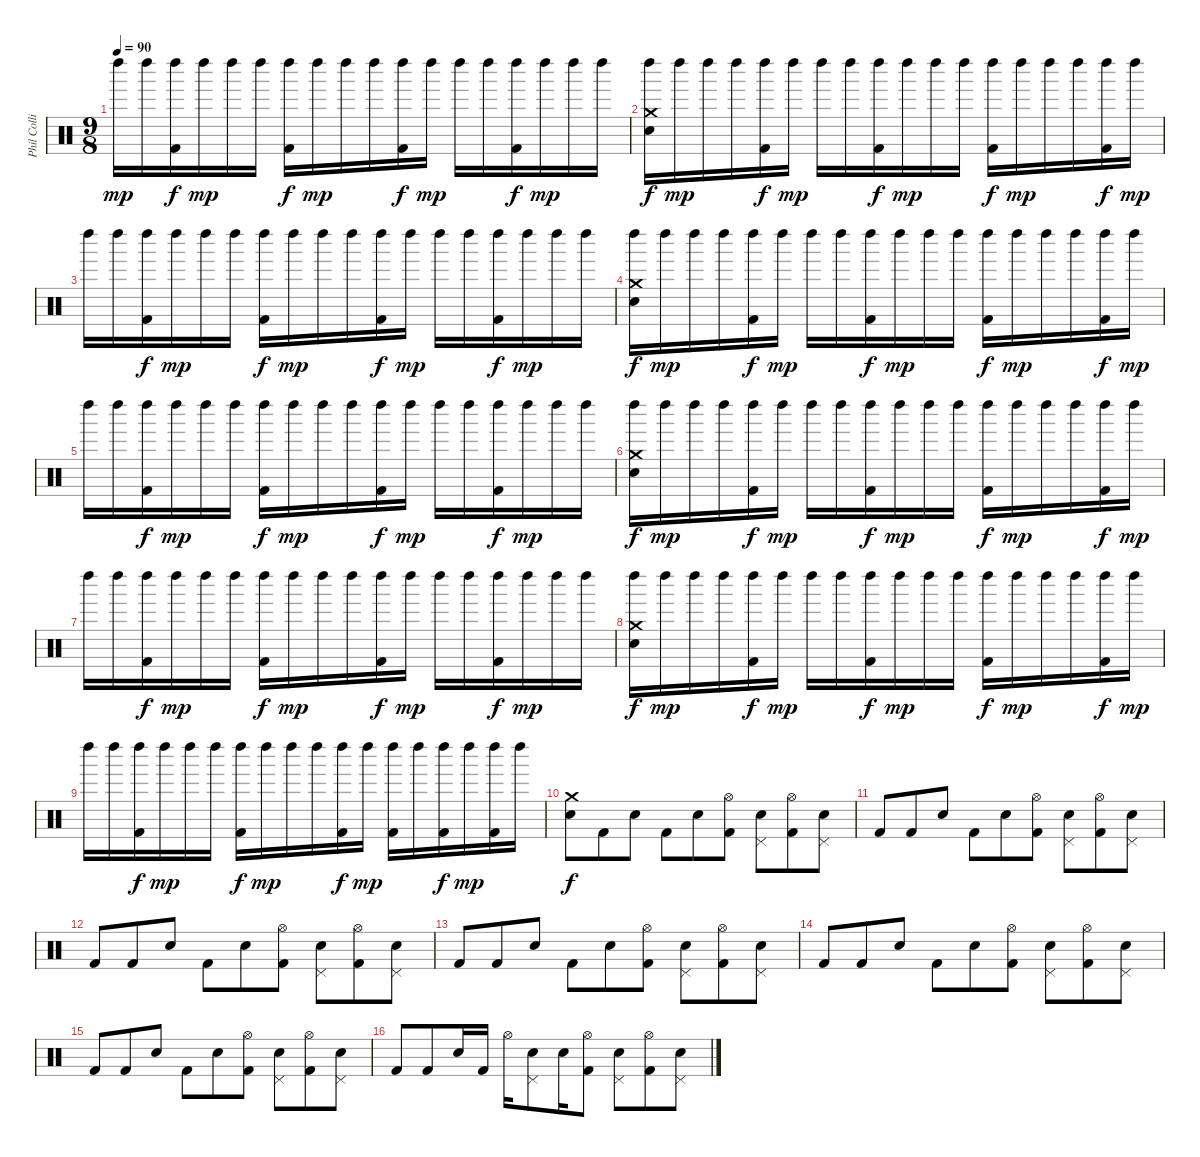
\track ("Phil Collins (drums)" "Phil Colli") {instrument percussion}
\staff {score}
\articulation defaults
\ts (9 8)
\tempo 90
\clef neutral
\ks c "Left Maraca (hit)".16{dy mp} "Left Maraca (hit)".16
("Left Maraca (hit)" "Kick (hit) 2").16{dy f} "Left Maraca (hit)".16{dy mp} "Left Maraca (hit)".16 "Left Maraca (hit)".16 ("Left Maraca (hit)" "Kick (hit) 2").16{dy f} "Left Maraca (hit)".16{dy mp} "Left Maraca (hit)".16 "Left Maraca (hit)".16 ("Left Maraca (hit)" "Kick (hit) 2").16{dy f} "Left Maraca (hit)".16{dy mp} "Left Maraca (hit)".16 "Left Maraca (hit)".16 ("Left Maraca (hit)" "Kick (hit) 2").16{dy f} "Left Maraca (hit)".16{dy mp} "Left Maraca (hit)".16 "Left Maraca (hit)".16 |
("Crash medium (hit)" "Left Maraca (hit)" "Electric Snare (hit)").16{dy f} "Left Maraca (hit)".16{dy mp} "Left Maraca (hit)".16 "Left Maraca (hit)".16 ("Left Maraca (hit)" "Kick (hit) 2").16{dy f} "Left Maraca (hit)".16{dy mp} "Left Maraca (hit)".16 "Left Maraca (hit)".16 ("Left Maraca (hit)" "Kick (hit) 2").16{dy f} "Left Maraca (hit)".16{dy mp} "Left Maraca (hit)".16 "Left Maraca (hit)".16 ("Left Maraca (hit)" "Kick (hit) 2").16{dy f} "Left Maraca (hit)".16{dy mp} "Left Maraca (hit)".16 "Left Maraca (hit)".16 ("Left Maraca (hit)" "Kick (hit) 2").16{dy f} "Left Maraca (hit)".16{dy mp} |
"Left Maraca (hit)".16 "Left Maraca (hit)".16 ("Left Maraca (hit)" "Kick (hit) 2").16{dy f} "Left Maraca (hit)".16{dy mp} "Left Maraca (hit)".16 "Left Maraca (hit)".16 ("Left Maraca (hit)" "Kick (hit) 2").16{dy f} "Left Maraca (hit)".16{dy mp} "Left Maraca (hit)".16 "Left Maraca (hit)".16 ("Left Maraca (hit)" "Kick (hit) 2").16{dy f} "Left Maraca (hit)".16{dy mp} "Left Maraca (hit)".16 "Left Maraca (hit)".16 ("Left Maraca (hit)" "Kick (hit) 2").16{dy f} "Left Maraca (hit)".16{dy mp} "Left Maraca (hit)".16 "Left Maraca (hit)".16 |
("Crash medium (hit)" "Left Maraca (hit)" "Electric Snare (hit)").16{dy f} "Left Maraca (hit)".16{dy mp} "Left Maraca (hit)".16 "Left Maraca (hit)".16 ("Left Maraca (hit)" "Kick (hit) 2").16{dy f} "Left Maraca (hit)".16{dy mp} "Left Maraca (hit)".16 "Left Maraca (hit)".16 ("Left Maraca (hit)" "Kick (hit) 2").16{dy f} "Left Maraca (hit)".16{dy mp} "Left Maraca (hit)".16 "Left Maraca (hit)".16 ("Left Maraca (hit)" "Kick (hit) 2").16{dy f} "Left Maraca (hit)".16{dy mp} "Left Maraca (hit)".16 "Left Maraca (hit)".16 ("Left Maraca (hit)" "Kick (hit) 2").16{dy f} "Left Maraca (hit)".16{dy mp} |
"Left Maraca (hit)".16 "Left Maraca (hit)".16 ("Left Maraca (hit)" "Kick (hit) 2").16{dy f} "Left Maraca (hit)".16{dy mp} "Left Maraca (hit)".16 "Left Maraca (hit)".16 ("Left Maraca (hit)" "Kick (hit) 2").16{dy f} "Left Maraca (hit)".16{dy mp} "Left Maraca (hit)".16 "Left Maraca (hit)".16 ("Left Maraca (hit)" "Kick (hit) 2").16{dy f} "Left Maraca (hit)".16{dy mp} "Left Maraca (hit)".16 "Left Maraca (hit)".16 ("Left Maraca (hit)" "Kick (hit) 2").16{dy f} "Left Maraca (hit)".16{dy mp} "Left Maraca (hit)".16 "Left Maraca (hit)".16 |
("Crash medium (hit)" "Left Maraca (hit)" "Electric Snare (hit)").16{dy f} "Left Maraca (hit)".16{dy mp} "Left Maraca (hit)".16 "Left Maraca (hit)".16 ("Left Maraca (hit)" "Kick (hit) 2").16{dy f} "Left Maraca (hit)".16{dy mp} "Left Maraca (hit)".16 "Left Maraca (hit)".16 ("Left Maraca (hit)" "Kick (hit) 2").16{dy f} "Left Maraca (hit)".16{dy mp} "Left Maraca (hit)".16 "Left Maraca (hit)".16 ("Left Maraca (hit)" "Kick (hit) 2").16{dy f} "Left Maraca (hit)".16{dy mp} "Left Maraca (hit)".16 "Left Maraca (hit)".16 ("Left Maraca (hit)" "Kick (hit) 2").16{dy f} "Left Maraca (hit)".16{dy mp} |
"Left Maraca (hit)".16 "Left Maraca (hit)".16 ("Left Maraca (hit)" "Kick (hit) 2").16{dy f} "Left Maraca (hit)".16{dy mp} "Left Maraca (hit)".16 "Left Maraca (hit)".16 ("Left Maraca (hit)" "Kick (hit) 2").16{dy f} "Left Maraca (hit)".16{dy mp} "Left Maraca (hit)".16 "Left Maraca (hit)".16 ("Left Maraca (hit)" "Kick (hit) 2").16{dy f} "Left Maraca (hit)".16{dy mp} "Left Maraca (hit)".16 "Left Maraca (hit)".16 ("Left Maraca (hit)" "Kick (hit) 2").16{dy f} "Left Maraca (hit)".16{dy mp} "Left Maraca (hit)".16 "Left Maraca (hit)".16 |
("Crash medium (hit)" "Left Maraca (hit)" "Electric Snare (hit)").16{dy f} "Left Maraca (hit)".16{dy mp} "Left Maraca (hit)".16 "Left Maraca (hit)".16 ("Left Maraca (hit)" "Kick (hit) 2").16{dy f} "Left Maraca (hit)".16{dy mp} "Left Maraca (hit)".16 "Left Maraca (hit)".16 ("Left Maraca (hit)" "Kick (hit) 2").16{dy f} "Left Maraca (hit)".16{dy mp} "Left Maraca (hit)".16 "Left Maraca (hit)".16 ("Left Maraca (hit)" "Kick (hit) 2").16{dy f} "Left Maraca (hit)".16{dy mp} "Left Maraca (hit)".16 "Left Maraca (hit)".16 ("Left Maraca (hit)" "Kick (hit) 2").16{dy f} "Left Maraca (hit)".16{dy mp} |
"Left Maraca (hit)".16 "Left Maraca (hit)".16 ("Left Maraca (hit)" "Kick (hit) 2").16{dy f} "Left Maraca (hit)".16{dy mp} "Left Maraca (hit)".16 "Left Maraca (hit)".16 ("Left Maraca (hit)" "Kick (hit) 2").16{dy f} "Left Maraca (hit)".16{dy mp} "Left Maraca (hit)".16 "Left Maraca (hit)".16 ("Left Maraca (hit)" "Kick (hit) 2").16{dy f} "Left Maraca (hit)".16{dy mp} ("Left Maraca (hit)" "Kick (hit) 2").16 "Left Maraca (hit)".16 ("Left Maraca (hit)" "Kick (hit) 2").16{dy f} "Left Maraca (hit)".16{dy mp} ("Left Maraca (hit)" "Kick (hit) 2").16 "Left Maraca (hit)".16 |
("Crash medium (hit)" "Electric Snare (hit)").8{dy f} "Kick (hit) 2".8 "Electric Snare (hit)".8 "Kick (hit) 2".8 "Electric Snare (hit)".8 ("Hi-Hat (open)" "Kick (hit) 2").8 ("Pedal Hi-Hat (hit)" "Electric Snare (hit)").8 ("Hi-Hat (open)" "Kick (hit) 2").8 ("Pedal Hi-Hat (hit)" "Electric Snare (hit)").8 |
"Kick (hit) 2".8 "Kick (hit) 2".8 "Electric Snare (hit)".8 "Kick (hit) 2".8 "Electric Snare (hit)".8 ("Hi-Hat (open)" "Kick (hit) 2").8 ("Pedal Hi-Hat (hit)" "Electric Snare (hit)").8 ("Hi-Hat (open)" "Kick (hit) 2").8 ("Pedal Hi-Hat (hit)" "Electric Snare (hit)").8 |
"Kick (hit) 2".8 "Kick (hit) 2".8 "Electric Snare (hit)".8 "Kick (hit) 2".8 "Electric Snare (hit)".8 ("Hi-Hat (open)" "Kick (hit) 2").8 ("Pedal Hi-Hat (hit)" "Electric Snare (hit)").8 ("Hi-Hat (open)" "Kick (hit) 2").8 ("Pedal Hi-Hat (hit)" "Electric Snare (hit)").8 |
"Kick (hit) 2".8 "Kick (hit) 2".8 "Electric Snare (hit)".8 "Kick (hit) 2".8 "Electric Snare (hit)".8 ("Hi-Hat (open)" "Kick (hit) 2").8 ("Pedal Hi-Hat (hit)" "Electric Snare (hit)").8 ("Hi-Hat (open)" "Kick (hit) 2").8 ("Pedal Hi-Hat (hit)" "Electric Snare (hit)").8 |
"Kick (hit) 2".8 "Kick (hit) 2".8 "Electric Snare (hit)".8 "Kick (hit) 2".8 "Electric Snare (hit)".8 ("Hi-Hat (open)" "Kick (hit) 2").8 ("Pedal Hi-Hat (hit)" "Electric Snare (hit)").8 ("Hi-Hat (open)" "Kick (hit) 2").8 ("Pedal Hi-Hat (hit)" "Electric Snare (hit)").8 |
"Kick (hit) 2".8 "Kick (hit) 2".8 "Electric Snare (hit)".8 "Kick (hit) 2".8 "Electric Snare (hit)".8 ("Hi-Hat (open)" "Kick (hit) 2").8 ("Pedal Hi-Hat (hit)" "Electric Snare (hit)").8 ("Hi-Hat (open)" "Kick (hit) 2").8 ("Pedal Hi-Hat (hit)" "Electric Snare (hit)").8 |
"Kick (hit) 2".8 "Kick (hit) 2".8 "Electric Snare (hit)".16 "Kick (hit) 2".16 "Hi-Hat (open)".16 ("Pedal Hi-Hat (hit)" "Electric Snare (hit)").8 "Electric Snare (hit)".16 ("Hi-Hat (open)" "Kick (hit) 2").8 ("Pedal Hi-Hat (hit)" "Electric Snare (hit)").8 ("Hi-Hat (open)" "Kick (hit) 2").8 ("Pedal Hi-Hat (hit)" "Electric Snare (hit)").8
